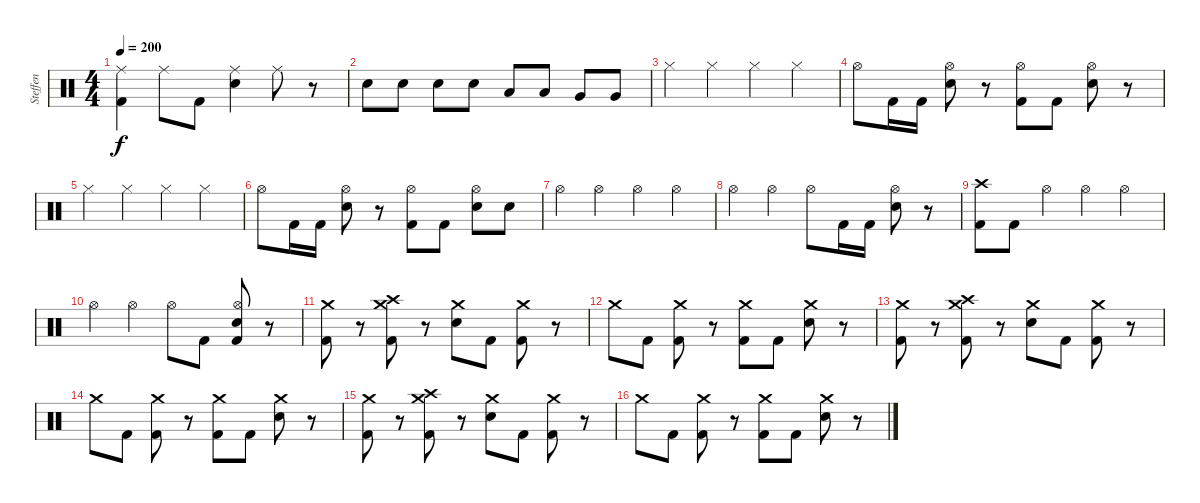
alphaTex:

\track ("Steffen" "Steffen") {instrument percussion}
\staff {score}
\articulation defaults
\ts (4 4)
\tempo 200
\clef neutral
\ks c
("Ride (middle)" "Kick (hit) 2").4{dy f} "Ride (middle)".8 "Kick (hit) 2".8 ("Ride (middle)" "Electric Snare (hit)").4 "Ride (middle)".8 r.8 |
"Electric Snare (hit)".8 "Electric Snare (hit)".8 "Electric Snare (hit)".8 "Electric Snare (hit)".8 "Low Tom (hit)".8 "Low Tom (hit)".8 "Very Low Tom (hit)".8 "Very Low Tom (hit)".8 |
"Hi-Hat (closed)".4 "Hi-Hat (closed)".4 "Hi-Hat (closed)".4 "Hi-Hat (closed)".4 |
"Hi-Hat (open)".8 "Kick (hit) 2".16 "Kick (hit) 2".16 ("Hi-Hat (open)" "Snare (hit) 2").8 r.8 ("Hi-Hat (open)" "Kick (hit) 2").8 "Kick (hit) 2".8 ("Hi-Hat (open)" "Snare (hit) 2").8 r.8 |
"Hi-Hat (closed)".4 "Hi-Hat (closed)".4 "Hi-Hat (closed)".4 "Hi-Hat (closed)".4 |
"Hi-Hat (open)".8 "Kick (hit) 2".16 "Kick (hit) 2".16 ("Hi-Hat (open)" "Snare (hit) 2").8 r.8 ("Hi-Hat (open)" "Kick (hit) 2").8 "Kick (hit) 2".8 ("Hi-Hat (open)" "Snare (hit) 2").8 "Snare (hit) 2".8 |
"Hi-Hat (open)".4 "Hi-Hat (open)".4 "Hi-Hat (open)".4 "Hi-Hat (open)".4 |
"Hi-Hat (open)".4 "Hi-Hat (open)".4 "Hi-Hat (open)".8 "Kick (hit) 2".16 "Kick (hit) 2".16 ("Hi-Hat (open)" "Snare (hit) 2").8 r.8 |
("Crash high (hit)" "Kick (hit) 2").8 "Kick (hit) 2".8 "Hi-Hat (open)".4 "Hi-Hat (open)".4 "Hi-Hat (open)".4 |
"Hi-Hat (open)".4 "Hi-Hat (open)".4 "Hi-Hat (open)".8 "Kick (hit) 2".8 ("Hi-Hat (open)" "Snare (hit) 2" "Kick (hit) 2").8 r.8 |
("Crash medium (hit)" "Kick (hit) 2").8 r.8 ("Crash high (hit)" "Crash medium (hit)" "Kick (hit) 2").8 r.8 ("Crash medium (hit)" "Snare (hit) 2").8 "Kick (hit) 2".8 ("Crash medium (hit)" "Kick (hit) 2").8 r.8 |
"Crash medium (hit)".8 "Kick (hit) 2".8 ("Crash medium (hit)" "Kick (hit) 2").8 r.8 ("Crash medium (hit)" "Kick (hit) 2").8 "Kick (hit) 2".8 ("Crash medium (hit)" "Snare (hit) 2").8 r.8 |
("Crash medium (hit)" "Kick (hit) 2").8 r.8 ("Crash high (hit)" "Crash medium (hit)" "Kick (hit) 2").8 r.8 ("Crash medium (hit)" "Snare (hit) 2").8 "Kick (hit) 2".8 ("Crash medium (hit)" "Kick (hit) 2").8 r.8 |
"Crash medium (hit)".8 "Kick (hit) 2".8 ("Crash medium (hit)" "Kick (hit) 2").8 r.8 ("Crash medium (hit)" "Kick (hit) 2").8 "Kick (hit) 2".8 ("Crash medium (hit)" "Snare (hit) 2").8 r.8 |
("Crash medium (hit)" "Kick (hit) 2").8 r.8 ("Crash high (hit)" "Crash medium (hit)" "Kick (hit) 2").8 r.8 ("Crash medium (hit)" "Snare (hit) 2").8 "Kick (hit) 2".8 ("Crash medium (hit)" "Kick (hit) 2").8 r.8 |
"Crash medium (hit)".8 "Kick (hit) 2".8 ("Crash medium (hit)" "Kick (hit) 2").8 r.8 ("Crash medium (hit)" "Kick (hit) 2").8 "Kick (hit) 2".8 ("Crash medium (hit)" "Snare (hit) 2").8 r.8
